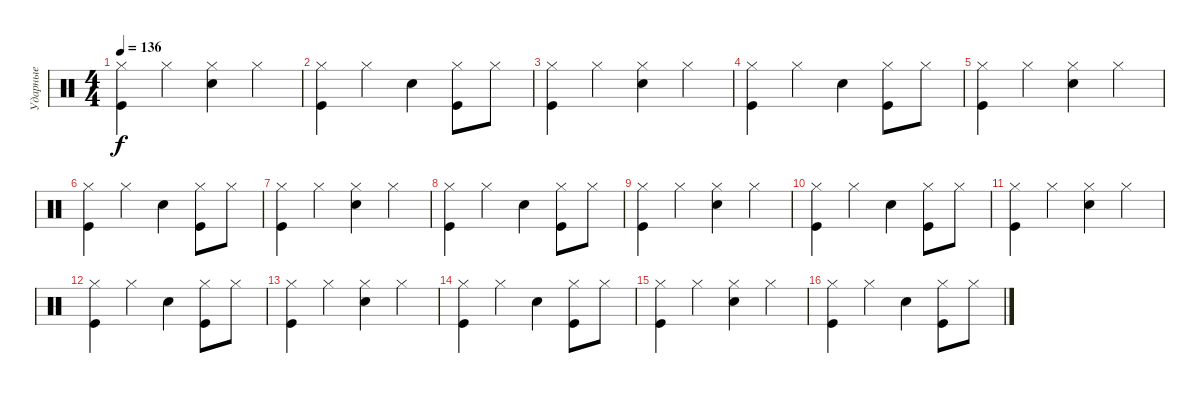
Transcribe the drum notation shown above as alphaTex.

\track ("Ударные" "Ударные") {instrument percussion}
\staff {score}
\articulation defaults
\ts (4 4)
\tempo 136
\clef neutral
\ks c
("Hi-Hat (closed)" "Kick (hit)").4{dy f} "Hi-Hat (closed)".4 ("Hi-Hat (closed)" "Electric Snare (hit)").4 "Hi-Hat (closed)".4 |
("Kick (hit)" "Hi-Hat (closed)").4 "Hi-Hat (closed)".4 "Electric Snare (hit)".4 ("Hi-Hat (closed)" "Kick (hit)").8 "Hi-Hat (closed)".8 |
("Hi-Hat (closed)" "Kick (hit)").4 "Hi-Hat (closed)".4 ("Hi-Hat (closed)" "Electric Snare (hit)").4 "Hi-Hat (closed)".4 |
("Kick (hit)" "Hi-Hat (closed)").4 "Hi-Hat (closed)".4 "Electric Snare (hit)".4 ("Hi-Hat (closed)" "Kick (hit)").8 "Hi-Hat (closed)".8 |
("Hi-Hat (closed)" "Kick (hit)").4 "Hi-Hat (closed)".4 ("Hi-Hat (closed)" "Electric Snare (hit)").4 "Hi-Hat (closed)".4 |
("Kick (hit)" "Hi-Hat (closed)").4 "Hi-Hat (closed)".4 "Electric Snare (hit)".4 ("Hi-Hat (closed)" "Kick (hit)").8 "Hi-Hat (closed)".8 |
("Hi-Hat (closed)" "Kick (hit)").4 "Hi-Hat (closed)".4 ("Hi-Hat (closed)" "Electric Snare (hit)").4 "Hi-Hat (closed)".4 |
("Kick (hit)" "Hi-Hat (closed)").4 "Hi-Hat (closed)".4 "Electric Snare (hit)".4 ("Hi-Hat (closed)" "Kick (hit)").8 "Hi-Hat (closed)".8 |
("Hi-Hat (closed)" "Kick (hit)").4 "Hi-Hat (closed)".4 ("Hi-Hat (closed)" "Electric Snare (hit)").4 "Hi-Hat (closed)".4 |
("Kick (hit)" "Hi-Hat (closed)").4 "Hi-Hat (closed)".4 "Electric Snare (hit)".4 ("Hi-Hat (closed)" "Kick (hit)").8 "Hi-Hat (closed)".8 |
("Hi-Hat (closed)" "Kick (hit)").4 "Hi-Hat (closed)".4 ("Hi-Hat (closed)" "Electric Snare (hit)").4 "Hi-Hat (closed)".4 |
("Kick (hit)" "Hi-Hat (closed)").4 "Hi-Hat (closed)".4 "Electric Snare (hit)".4 ("Hi-Hat (closed)" "Kick (hit)").8 "Hi-Hat (closed)".8 |
("Hi-Hat (closed)" "Kick (hit)").4 "Hi-Hat (closed)".4 ("Hi-Hat (closed)" "Electric Snare (hit)").4 "Hi-Hat (closed)".4 |
("Kick (hit)" "Hi-Hat (closed)").4 "Hi-Hat (closed)".4 "Electric Snare (hit)".4 ("Hi-Hat (closed)" "Kick (hit)").8 "Hi-Hat (closed)".8 |
("Hi-Hat (closed)" "Kick (hit)").4 "Hi-Hat (closed)".4 ("Hi-Hat (closed)" "Electric Snare (hit)").4 "Hi-Hat (closed)".4 |
("Kick (hit)" "Hi-Hat (closed)").4 "Hi-Hat (closed)".4 "Electric Snare (hit)".4 ("Hi-Hat (closed)" "Kick (hit)").8 "Hi-Hat (closed)".8
